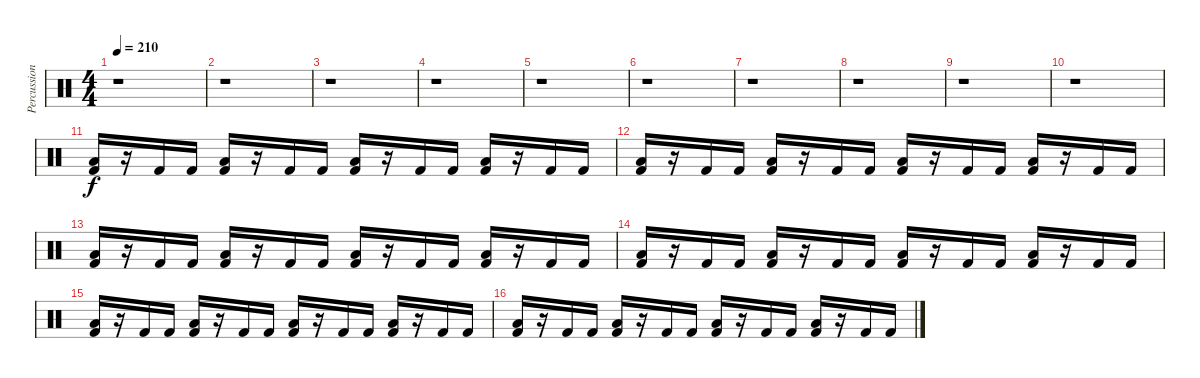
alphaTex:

\track ("Percussion" "Percussion") {instrument percussion}
\staff {score}
\articulation defaults
\ts (4 4)
\tempo 210
\clef neutral
\ks c
r.1{dy f} |
r.1 |
r.1 |
r.1 |
r.1 |
r.1 |
r.1 |
r.1 |
r.1 |
r.1 |
("Low Floor Tom (hit)" "Kick (hit) 2").16 r.16 "Kick (hit) 2".16 "Kick (hit) 2".16 ("Low Floor Tom (hit)" "Kick (hit) 2").16 r.16 "Kick (hit) 2".16 "Kick (hit) 2".16 ("Low Floor Tom (hit)" "Kick (hit) 2").16 r.16 "Kick (hit) 2".16 "Kick (hit) 2".16 ("Low Floor Tom (hit)" "Kick (hit) 2").16 r.16 "Kick (hit) 2".16 "Kick (hit) 2".16 |
("Low Floor Tom (hit)" "Kick (hit) 2").16 r.16 "Kick (hit) 2".16 "Kick (hit) 2".16 ("Low Floor Tom (hit)" "Kick (hit) 2").16 r.16 "Kick (hit) 2".16 "Kick (hit) 2".16 ("Low Floor Tom (hit)" "Kick (hit) 2").16 r.16 "Kick (hit) 2".16 "Kick (hit) 2".16 ("Low Floor Tom (hit)" "Kick (hit) 2").16 r.16 "Kick (hit) 2".16 "Kick (hit) 2".16 |
("Low Floor Tom (hit)" "Kick (hit) 2").16 r.16 "Kick (hit) 2".16 "Kick (hit) 2".16 ("Low Floor Tom (hit)" "Kick (hit) 2").16 r.16 "Kick (hit) 2".16 "Kick (hit) 2".16 ("Low Floor Tom (hit)" "Kick (hit) 2").16 r.16 "Kick (hit) 2".16 "Kick (hit) 2".16 ("Low Floor Tom (hit)" "Kick (hit) 2").16 r.16 "Kick (hit) 2".16 "Kick (hit) 2".16 |
("Low Floor Tom (hit)" "Kick (hit) 2").16 r.16 "Kick (hit) 2".16 "Kick (hit) 2".16 ("Low Floor Tom (hit)" "Kick (hit) 2").16 r.16 "Kick (hit) 2".16 "Kick (hit) 2".16 ("Low Floor Tom (hit)" "Kick (hit) 2").16 r.16 "Kick (hit) 2".16 "Kick (hit) 2".16 ("Low Floor Tom (hit)" "Kick (hit) 2").16 r.16 "Kick (hit) 2".16 "Kick (hit) 2".16 |
("Low Floor Tom (hit)" "Kick (hit) 2").16 r.16 "Kick (hit) 2".16 "Kick (hit) 2".16 ("Low Floor Tom (hit)" "Kick (hit) 2").16 r.16 "Kick (hit) 2".16 "Kick (hit) 2".16 ("Low Floor Tom (hit)" "Kick (hit) 2").16 r.16 "Kick (hit) 2".16 "Kick (hit) 2".16 ("Low Floor Tom (hit)" "Kick (hit) 2").16 r.16 "Kick (hit) 2".16 "Kick (hit) 2".16 |
("Low Floor Tom (hit)" "Kick (hit) 2").16 r.16 "Kick (hit) 2".16 "Kick (hit) 2".16 ("Low Floor Tom (hit)" "Kick (hit) 2").16 r.16 "Kick (hit) 2".16 "Kick (hit) 2".16 ("Low Floor Tom (hit)" "Kick (hit) 2").16 r.16 "Kick (hit) 2".16 "Kick (hit) 2".16 ("Low Floor Tom (hit)" "Kick (hit) 2").16 r.16 "Kick (hit) 2".16 "Kick (hit) 2".16
